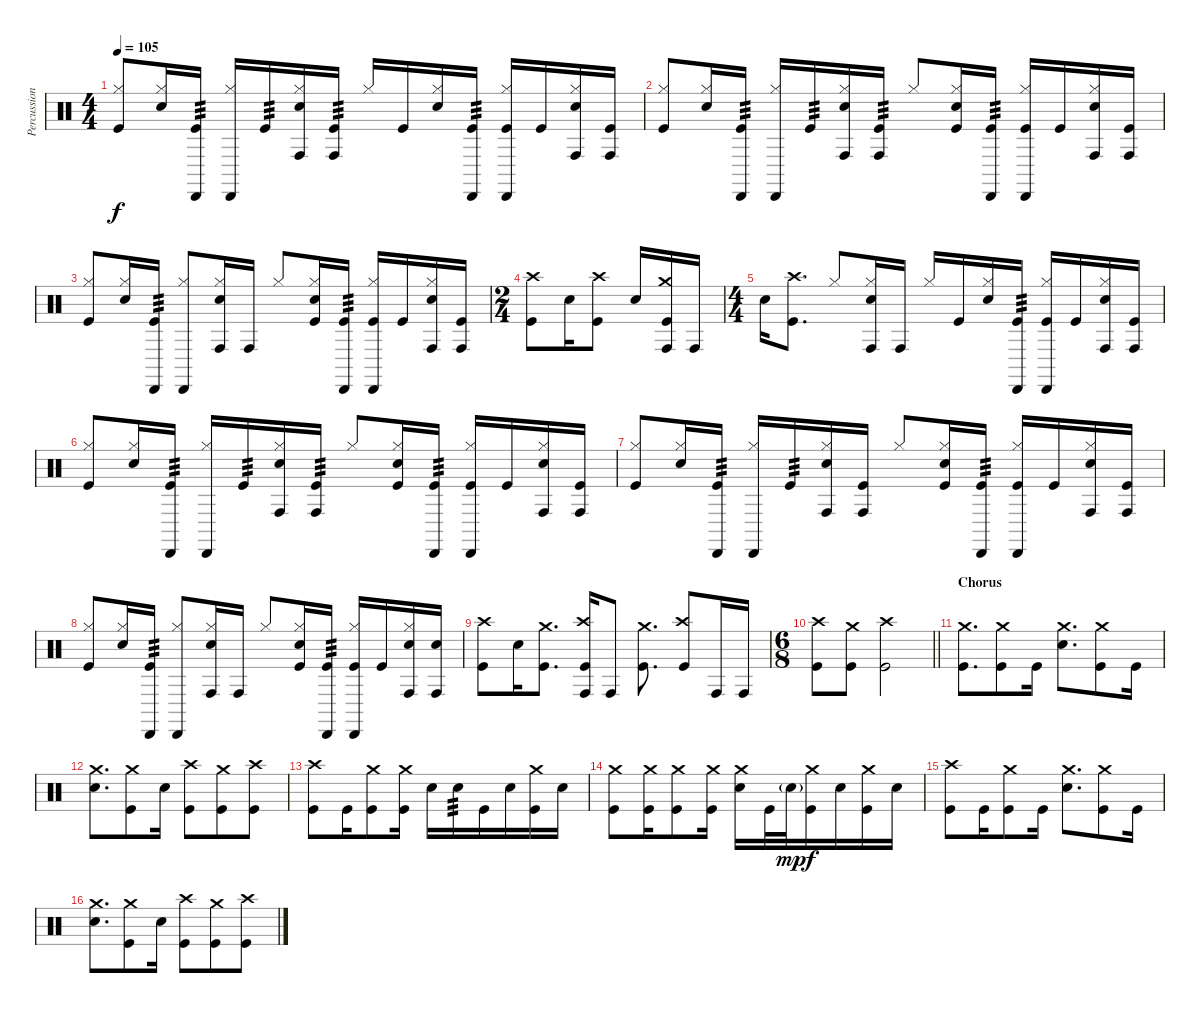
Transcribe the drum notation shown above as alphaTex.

\track ("Percussion" "Percussion") {instrument percussion}
\staff {score}
\articulation defaults
\ts (4 4)
\tempo 105
\clef neutral
\ks c
("Hi-Hat (closed)" "Kick (hit)").8{dy f} ("Hi-Hat (closed)" "Snare (hit) 2").16 ("Cabasa (hit)" "Kick (hit)").16{tp 3} ("Hi-Hat (closed)" "Cabasa (hit)").16 "Kick (hit)".16{tp 3} ("Hi-Hat (closed)" "Snare (hit) 2" "Conga high (hit)").16 ("Conga high (hit)" "Kick (hit)").16{tp 3} "Hi-Hat (closed)".16 "Kick (hit)".16 ("Hi-Hat (closed)" "Snare (hit) 2").16 ("Cabasa (hit)" "Kick (hit)").16{tp 3} ("Hi-Hat (closed)" "Cabasa (hit)" "Kick (hit)").16 "Kick (hit)".16 ("Hi-Hat (closed)" "Snare (hit) 2" "Conga high (hit)").16 ("Conga high (hit)" "Kick (hit)").16 |
("Hi-Hat (closed)" "Kick (hit)").8 ("Hi-Hat (closed)" "Snare (hit) 2").16 ("Cabasa (hit)" "Kick (hit)").16{tp 3} ("Hi-Hat (closed)" "Cabasa (hit)").16 "Kick (hit)".16{tp 3} ("Hi-Hat (closed)" "Snare (hit) 2" "Conga high (hit)").16 ("Conga high (hit)" "Kick (hit)").16{tp 3} "Hi-Hat (closed)".8 ("Hi-Hat (closed)" "Snare (hit) 2" "Kick (hit)").16 ("Cabasa (hit)" "Kick (hit)").16{tp 3} ("Hi-Hat (closed)" "Cabasa (hit)" "Kick (hit)").16 "Kick (hit)".16 ("Hi-Hat (closed)" "Snare (hit) 2" "Conga high (hit)").16 ("Conga high (hit)" "Kick (hit)").16 |
("Hi-Hat (closed)" "Kick (hit)").8 ("Hi-Hat (closed)" "Snare (hit) 2").16 ("Cabasa (hit)" "Kick (hit)").16{tp 3} ("Hi-Hat (closed)" "Cabasa (hit)").8 ("Hi-Hat (closed)" "Snare (hit) 2" "Conga high (hit)").16 "Conga high (hit)".16 "Hi-Hat (closed)".8 ("Hi-Hat (closed)" "Snare (hit) 2" "Kick (hit)").16 ("Cabasa (hit)" "Kick (hit)").16{tp 3} ("Hi-Hat (closed)" "Cabasa (hit)" "Kick (hit)").16 "Kick (hit)".16 ("Hi-Hat (closed)" "Snare (hit) 2" "Conga high (hit)").16 ("Conga high (hit)" "Kick (hit)").16 |
\ts (2 4)
("Crash high (hit)" "Kick (hit)").8 "Snare (hit) 2".16 ("Crash high (hit)" "Kick (hit)").8 "Snare (hit) 2".16 ("Crash medium (hit)" "Conga high (hit)" "Kick (hit)").16 "Conga high (hit)".16 |
\ts (4 4)
"Snare (hit) 2".16 ("Crash high (hit)" "Kick (hit)").8{d} "Hi-Hat (closed)".8 ("Hi-Hat (closed)" "Snare (hit) 2" "Conga high (hit)").16 "Conga high (hit)".16 "Hi-Hat (closed)".16 "Kick (hit)".16 ("Hi-Hat (closed)" "Snare (hit) 2").16 ("Cabasa (hit)" "Kick (hit)").16{tp 3} ("Hi-Hat (closed)" "Cabasa (hit)" "Kick (hit)").16 "Kick (hit)".16 ("Hi-Hat (closed)" "Snare (hit) 2" "Conga high (hit)").16 ("Conga high (hit)" "Kick (hit)").16 |
("Hi-Hat (closed)" "Kick (hit)").8 ("Hi-Hat (closed)" "Snare (hit) 2").16 ("Cabasa (hit)" "Kick (hit)").16{tp 3} ("Hi-Hat (closed)" "Cabasa (hit)").16 "Kick (hit)".16{tp 3} ("Hi-Hat (closed)" "Snare (hit) 2" "Conga high (hit)").16 ("Conga high (hit)" "Kick (hit)").16{tp 3} "Hi-Hat (closed)".8 ("Hi-Hat (closed)" "Snare (hit) 2" "Kick (hit)").16 ("Cabasa (hit)" "Kick (hit)").16{tp 3} ("Hi-Hat (closed)" "Cabasa (hit)" "Kick (hit)").16 "Kick (hit)".16 ("Hi-Hat (closed)" "Snare (hit) 2" "Conga high (hit)").16 ("Conga high (hit)" "Kick (hit)").16 |
("Hi-Hat (closed)" "Kick (hit)").8 ("Hi-Hat (closed)" "Snare (hit) 2").16 ("Cabasa (hit)" "Kick (hit)").16{tp 3} ("Hi-Hat (closed)" "Cabasa (hit)").16 "Kick (hit)".16{tp 3} ("Hi-Hat (closed)" "Snare (hit) 2" "Conga high (hit)").16 ("Conga high (hit)" "Kick (hit)").16 "Hi-Hat (closed)".8 ("Hi-Hat (closed)" "Snare (hit) 2" "Kick (hit)").16 ("Cabasa (hit)" "Kick (hit)").16{tp 3} ("Hi-Hat (closed)" "Cabasa (hit)" "Kick (hit)").16 "Kick (hit)".16 ("Hi-Hat (closed)" "Snare (hit) 2" "Conga high (hit)").16 ("Conga high (hit)" "Kick (hit)").16 |
("Hi-Hat (closed)" "Kick (hit)").8 ("Hi-Hat (closed)" "Snare (hit) 2").16 ("Cabasa (hit)" "Kick (hit)").16{tp 3} ("Hi-Hat (closed)" "Cabasa (hit)").8 ("Hi-Hat (closed)" "Snare (hit) 2" "Conga high (hit)").16 "Conga high (hit)".16 "Hi-Hat (closed)".8 ("Hi-Hat (closed)" "Snare (hit) 2" "Kick (hit)").16 ("Cabasa (hit)" "Kick (hit)").16{tp 3} ("Hi-Hat (closed)" "Cabasa (hit)" "Kick (hit)").16 "Kick (hit)".16 ("Hi-Hat (closed)" "Snare (hit) 2" "Conga high (hit)").16 ("Snare (hit) 2" "Conga high (hit)").16 |
("Crash high (hit)" "Kick (hit)").8 "Snare (hit) 2".16 ("Crash medium (hit)" "Kick (hit)").8{d} ("Crash high (hit)" "Conga high (hit)" "Kick (hit)").16 "Conga high (hit)".8 ("Crash medium (hit)" "Kick (hit)").8{d} ("Crash high (hit)" "Kick (hit)").8 "Conga high (hit)".16 "Conga high (hit)".16 |
\ts (6 8)
\barLineRight lightlight
("Crash high (hit)" "Kick (hit)").8 ("Crash medium (hit)" "Kick (hit)").8 ("Crash high (hit)" "Kick (hit)").2 |
\section ("" "Chorus")
("Crash medium (hit)" "Kick (hit)").8{d} ("Crash medium (hit)" "Kick (hit)").8 "Kick (hit)".16 ("Crash medium (hit)" "Snare (hit) 2").8{d} ("Crash medium (hit)" "Kick (hit)").8 "Kick (hit)".16 |
("Crash medium (hit)" "Snare (hit) 2").8{d} ("Crash medium (hit)" "Kick (hit)").8 "Snare (hit) 2".16 ("Crash high (hit)" "Kick (hit)").8 ("Crash medium (hit)" "Kick (hit)").8 ("Crash high (hit)" "Kick (hit)").8 |
("Crash high (hit)" "Kick (hit)").8 "Kick (hit)".16 ("Crash medium (hit)" "Kick (hit)").8 ("Crash medium (hit)" "Kick (hit)").16 "Snare (hit) 2".16 "Snare (hit) 2".16{tp 3} "Kick (hit)".16 "Snare (hit) 2".16 ("Crash medium (hit)" "Kick (hit)").16 "Snare (hit) 2".16 |
("Crash medium (hit)" "Kick (hit)").8 ("Crash medium (hit)" "Kick (hit)").16 ("Crash medium (hit)" "Kick (hit)").8 ("Crash medium (hit)" "Kick (hit)").16 ("Crash medium (hit)" "Snare (hit) 2").16 "Kick (hit)".32 "Snare (hit) 2"{g}.32{dy mp} ("Crash medium (hit)" "Kick (hit)").16{dy f} "Snare (hit) 2".16 ("Crash medium (hit)" "Kick (hit)").16 "Snare (hit) 2".16 |
("Crash high (hit)" "Kick (hit)").8 "Kick (hit)".16 ("Crash medium (hit)" "Kick (hit)").8 "Kick (hit)".16 ("Crash medium (hit)" "Snare (hit) 2").8{d} ("Crash medium (hit)" "Kick (hit)").8 "Kick (hit)".16 |
("Crash medium (hit)" "Snare (hit) 2").8{d} ("Crash medium (hit)" "Kick (hit)").8 "Snare (hit) 2".16 ("Crash high (hit)" "Kick (hit)").8 ("Crash medium (hit)" "Kick (hit)").8 ("Crash high (hit)" "Kick (hit)").8
